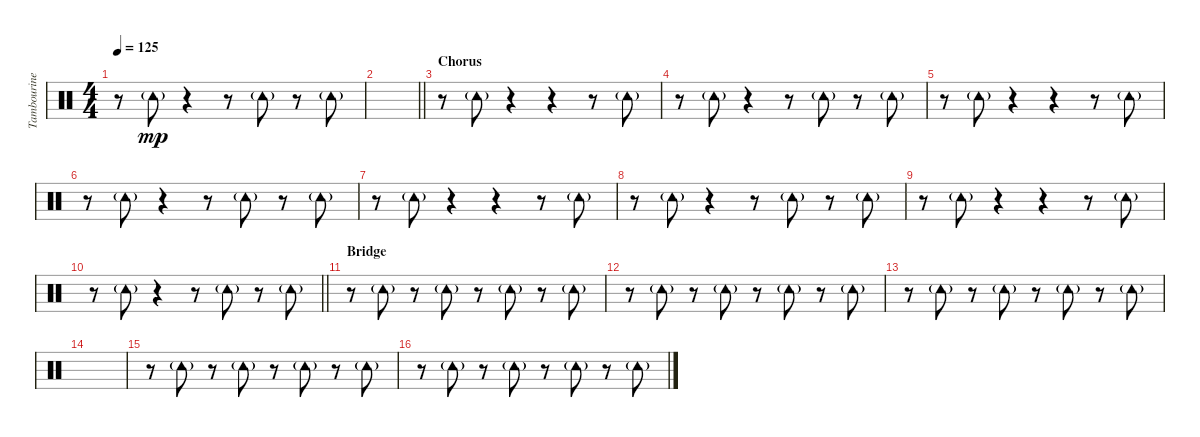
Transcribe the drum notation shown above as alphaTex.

\track ("Tambourine" "Tambourine") {instrument percussion}
\staff {score}
\articulation defaults
\ts (4 4)
\tempo 125
\clef neutral
\ks c
r.8{dy mp} "Tambourine (hit)"{g}.8 r.4 r.8 "Tambourine (hit)"{g}.8 r.8 "Tambourine (hit)"{g}.8 |
\barLineRight lightlight
|
\section ("" "Chorus")
r.8 "Tambourine (hit)"{g}.8 r.4 r.4 r.8 "Tambourine (hit)"{g}.8 |
r.8 "Tambourine (hit)"{g}.8 r.4 r.8 "Tambourine (hit)"{g}.8 r.8 "Tambourine (hit)"{g}.8 |
r.8 "Tambourine (hit)"{g}.8 r.4 r.4 r.8 "Tambourine (hit)"{g}.8 |
r.8 "Tambourine (hit)"{g}.8 r.4 r.8 "Tambourine (hit)"{g}.8 r.8 "Tambourine (hit)"{g}.8 |
r.8 "Tambourine (hit)"{g}.8 r.4 r.4 r.8 "Tambourine (hit)"{g}.8 |
r.8 "Tambourine (hit)"{g}.8 r.4 r.8 "Tambourine (hit)"{g}.8 r.8 "Tambourine (hit)"{g}.8 |
r.8 "Tambourine (hit)"{g}.8 r.4 r.4 r.8 "Tambourine (hit)"{g}.8 |
\barLineRight lightlight
r.8 "Tambourine (hit)"{g}.8 r.4 r.8 "Tambourine (hit)"{g}.8 r.8 "Tambourine (hit)"{g}.8 |
\section ("" "Bridge")
r.8 "Tambourine (hit)"{g}.8 r.8 "Tambourine (hit)"{g}.8 r.8 "Tambourine (hit)"{g}.8 r.8 "Tambourine (hit)"{g}.8 |
r.8 "Tambourine (hit)"{g}.8 r.8 "Tambourine (hit)"{g}.8 r.8 "Tambourine (hit)"{g}.8 r.8 "Tambourine (hit)"{g}.8 |
r.8 "Tambourine (hit)"{g}.8 r.8 "Tambourine (hit)"{g}.8 r.8 "Tambourine (hit)"{g}.8 r.8 "Tambourine (hit)"{g}.8 |
|
r.8 "Tambourine (hit)"{g}.8 r.8 "Tambourine (hit)"{g}.8 r.8 "Tambourine (hit)"{g}.8 r.8 "Tambourine (hit)"{g}.8 |
r.8 "Tambourine (hit)"{g}.8 r.8 "Tambourine (hit)"{g}.8 r.8 "Tambourine (hit)"{g}.8 r.8 "Tambourine (hit)"{g}.8
